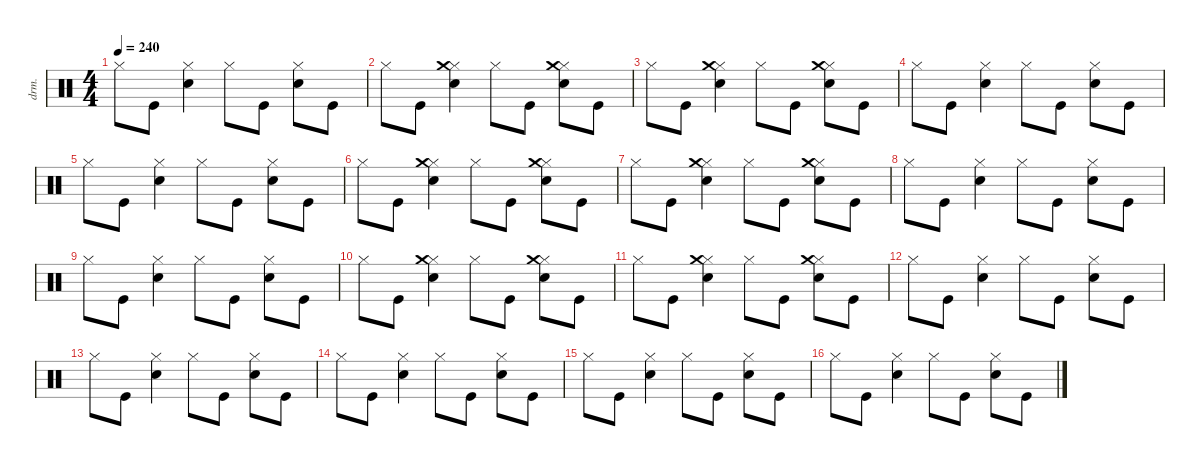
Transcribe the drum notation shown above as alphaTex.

\defaultSystemsLayout 4
\hideDynamics
\bracketExtendMode nobrackets
\track ("dany" "drm.") {instrument percussion}
\staff {score}
\articulation defaults
\ts (4 4)
\tempo 240
\clef neutral
\ks c "Hi-Hat (closed)".8{dy f beam Down} "Kick (hit)".8{beam Down}
("Snare (hit) 2" "Hi-Hat (closed)").4{beam Down} "Hi-Hat (closed)".8{beam Down} "Kick (hit)".8{beam Down} ("Snare (hit) 2" "Hi-Hat (closed)").8{beam Down} "Kick (hit)".8{beam Down} |
"Hi-Hat (closed)".8{beam Down} "Kick (hit)".8{beam Down} ("Snare (hit) 2" "Hi-Hat (closed)" "Crash medium (hit)").4{beam Down} "Hi-Hat (closed)".8{beam Down} "Kick (hit)".8{beam Down} ("Snare (hit) 2" "Hi-Hat (closed)" "Crash medium (hit)").8{beam Down} "Kick (hit)".8{beam Down} |
"Hi-Hat (closed)".8{beam Down} "Kick (hit)".8{beam Down} ("Snare (hit) 2" "Hi-Hat (closed)" "Crash medium (hit)").4{beam Down} "Hi-Hat (closed)".8{beam Down} "Kick (hit)".8{beam Down} ("Snare (hit) 2" "Hi-Hat (closed)" "Crash medium (hit)").8{beam Down} "Kick (hit)".8{beam Down} |
"Hi-Hat (closed)".8{beam Down} "Kick (hit)".8{beam Down} ("Snare (hit) 2" "Hi-Hat (closed)").4{beam Down} "Hi-Hat (closed)".8{beam Down} "Kick (hit)".8{beam Down} ("Snare (hit) 2" "Hi-Hat (closed)").8{beam Down} "Kick (hit)".8{beam Down} |
"Hi-Hat (closed)".8{beam Down} "Kick (hit)".8{beam Down} ("Snare (hit) 2" "Hi-Hat (closed)").4{beam Down} "Hi-Hat (closed)".8{beam Down} "Kick (hit)".8{beam Down} ("Snare (hit) 2" "Hi-Hat (closed)").8{beam Down} "Kick (hit)".8{beam Down} |
"Hi-Hat (closed)".8{beam Down} "Kick (hit)".8{beam Down} ("Snare (hit) 2" "Hi-Hat (closed)" "Crash medium (hit)").4{beam Down} "Hi-Hat (closed)".8{beam Down} "Kick (hit)".8{beam Down} ("Snare (hit) 2" "Hi-Hat (closed)" "Crash medium (hit)").8{beam Down} "Kick (hit)".8{beam Down} |
"Hi-Hat (closed)".8{beam Down} "Kick (hit)".8{beam Down} ("Snare (hit) 2" "Hi-Hat (closed)" "Crash medium (hit)").4{beam Down} "Hi-Hat (closed)".8{beam Down} "Kick (hit)".8{beam Down} ("Snare (hit) 2" "Hi-Hat (closed)" "Crash medium (hit)").8{beam Down} "Kick (hit)".8{beam Down} |
"Hi-Hat (closed)".8{beam Down} "Kick (hit)".8{beam Down} ("Snare (hit) 2" "Hi-Hat (closed)").4{beam Down} "Hi-Hat (closed)".8{beam Down} "Kick (hit)".8{beam Down} ("Snare (hit) 2" "Hi-Hat (closed)").8{beam Down} "Kick (hit)".8{beam Down} |
"Hi-Hat (closed)".8{beam Down} "Kick (hit)".8{beam Down} ("Snare (hit) 2" "Hi-Hat (closed)").4{beam Down} "Hi-Hat (closed)".8{beam Down} "Kick (hit)".8{beam Down} ("Snare (hit) 2" "Hi-Hat (closed)").8{beam Down} "Kick (hit)".8{beam Down} |
"Hi-Hat (closed)".8{beam Down} "Kick (hit)".8{beam Down} ("Snare (hit) 2" "Hi-Hat (closed)" "Crash medium (hit)").4{beam Down} "Hi-Hat (closed)".8{beam Down} "Kick (hit)".8{beam Down} ("Snare (hit) 2" "Hi-Hat (closed)" "Crash medium (hit)").8{beam Down} "Kick (hit)".8{beam Down} |
"Hi-Hat (closed)".8{beam Down} "Kick (hit)".8{beam Down} ("Snare (hit) 2" "Hi-Hat (closed)" "Crash medium (hit)").4{beam Down} "Hi-Hat (closed)".8{beam Down} "Kick (hit)".8{beam Down} ("Snare (hit) 2" "Hi-Hat (closed)" "Crash medium (hit)").8{beam Down} "Kick (hit)".8{beam Down} |
"Hi-Hat (closed)".8{beam Down} "Kick (hit)".8{beam Down} ("Snare (hit) 2" "Hi-Hat (closed)").4{beam Down} "Hi-Hat (closed)".8{beam Down} "Kick (hit)".8{beam Down} ("Snare (hit) 2" "Hi-Hat (closed)").8{beam Down} "Kick (hit)".8{beam Down} |
"Hi-Hat (closed)".8{beam Down} "Kick (hit)".8{beam Down} ("Snare (hit) 2" "Hi-Hat (closed)").4{beam Down} "Hi-Hat (closed)".8{beam Down} "Kick (hit)".8{beam Down} ("Snare (hit) 2" "Hi-Hat (closed)").8{beam Down} "Kick (hit)".8{beam Down} |
"Hi-Hat (closed)".8{beam Down} "Kick (hit)".8{beam Down} ("Snare (hit) 2" "Hi-Hat (closed)").4{beam Down} "Hi-Hat (closed)".8{beam Down} "Kick (hit)".8{beam Down} ("Snare (hit) 2" "Hi-Hat (closed)").8{beam Down} "Kick (hit)".8{beam Down} |
"Hi-Hat (closed)".8{beam Down} "Kick (hit)".8{beam Down} ("Snare (hit) 2" "Hi-Hat (closed)").4{beam Down} "Hi-Hat (closed)".8{beam Down} "Kick (hit)".8{beam Down} ("Snare (hit) 2" "Hi-Hat (closed)").8{beam Down} "Kick (hit)".8{beam Down} |
"Hi-Hat (closed)".8{beam Down} "Kick (hit)".8{beam Down} ("Snare (hit) 2" "Hi-Hat (closed)").4{beam Down} "Hi-Hat (closed)".8{beam Down} "Kick (hit)".8{beam Down} ("Snare (hit) 2" "Hi-Hat (closed)").8{beam Down} "Kick (hit)".8{beam Down}
